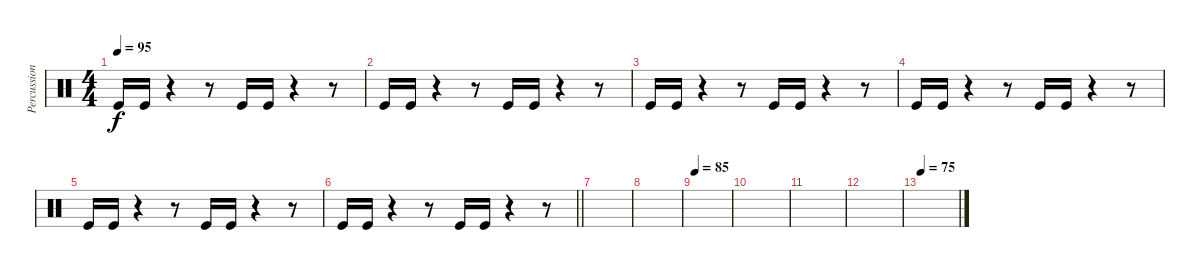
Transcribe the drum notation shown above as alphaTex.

\track ("Percussion" "Percussion") {instrument percussion}
\staff {score}
\articulation defaults
\ts (4 4)
\tempo 95
\clef neutral
\ks c "Kick (hit)".16{dy f} "Kick (hit)".16
r.4 r.8 "Kick (hit)".16 "Kick (hit)".16 r.4 r.8 |
"Kick (hit)".16 "Kick (hit)".16 r.4 r.8 "Kick (hit)".16 "Kick (hit)".16 r.4 r.8 |
"Kick (hit)".16 "Kick (hit)".16 r.4 r.8 "Kick (hit)".16 "Kick (hit)".16 r.4 r.8 |
"Kick (hit)".16 "Kick (hit)".16 r.4 r.8 "Kick (hit)".16 "Kick (hit)".16 r.4 r.8 |
"Kick (hit)".16 "Kick (hit)".16 r.4 r.8 "Kick (hit)".16 "Kick (hit)".16 r.4 r.8 |
\barLineRight lightlight "Kick (hit)".16 "Kick (hit)".16
r.4 r.8 "Kick (hit)".16 "Kick (hit)".16 r.4 r.8 |
|
|
\tempo 85
|
|
|
|
\tempo 75
